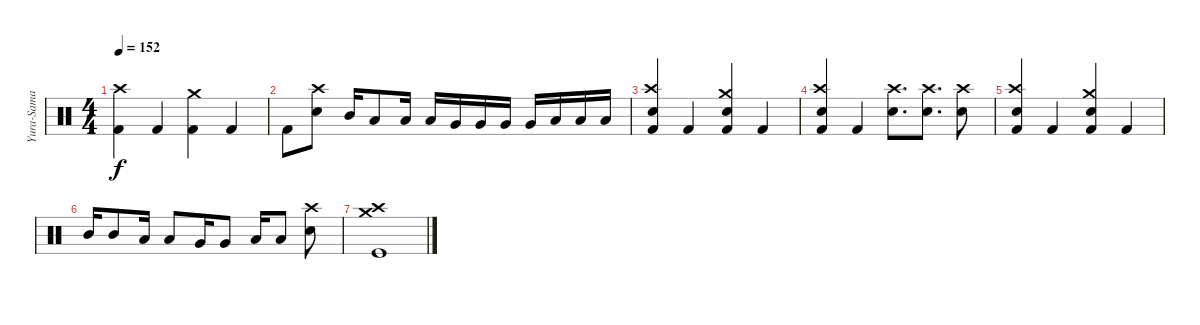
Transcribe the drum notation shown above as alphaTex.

\track ("Yura-Sama" "Yura-Sama") {instrument percussion}
\staff {score}
\articulation defaults
\ts (4 4)
\tempo 152
\clef neutral
\ks c
("Kick (hit) 2" "Crash high (hit)").4{dy f} "Kick (hit) 2".4 ("Kick (hit) 2" "Crash medium (hit)").4 "Kick (hit) 2".4 |
"Kick (hit) 2".8 ("Electric Snare (hit)" "Crash high (hit)").8 "Mid Tom (hit)".16 "Low Tom (hit)".8 "Low Tom (hit)".16 "Low Tom (hit)".16 "Very Low Tom (hit)".16 "Very Low Tom (hit)".16 "Very Low Tom (hit)".16 "Very Low Tom (hit)".16 "Low Floor Tom (hit)".16 "Low Floor Tom (hit)".16 "Low Floor Tom (hit)".16 |
("Kick (hit) 2" "Electric Snare (hit)" "Crash high (hit)").4 "Kick (hit) 2".4 ("Kick (hit) 2" "Electric Snare (hit)" "Crash medium (hit)").4 "Kick (hit) 2".4 |
("Kick (hit) 2" "Electric Snare (hit)" "Crash high (hit)").4 "Kick (hit) 2".4 ("Crash high (hit)" "Electric Snare (hit)").8{d} ("Crash high (hit)" "Electric Snare (hit)").8{d} ("Crash high (hit)" "Electric Snare (hit)").8 |
("Kick (hit) 2" "Electric Snare (hit)" "Crash high (hit)").4 "Kick (hit) 2".4 ("Kick (hit) 2" "Electric Snare (hit)" "Crash medium (hit)").4 "Kick (hit) 2".4 |
"Mid Tom (hit)".16 "Mid Tom (hit)".8 "Low Tom (hit)".16 "Low Tom (hit)".8 "Very Low Tom (hit)".16 "Very Low Tom (hit)".8 "Low Floor Tom (hit)".16 "Low Floor Tom (hit)".8 ("Electric Snare (hit)" "Crash high (hit)").8 |
("Kick (hit)" "Crash medium (hit)" "Crash high (hit)").1
